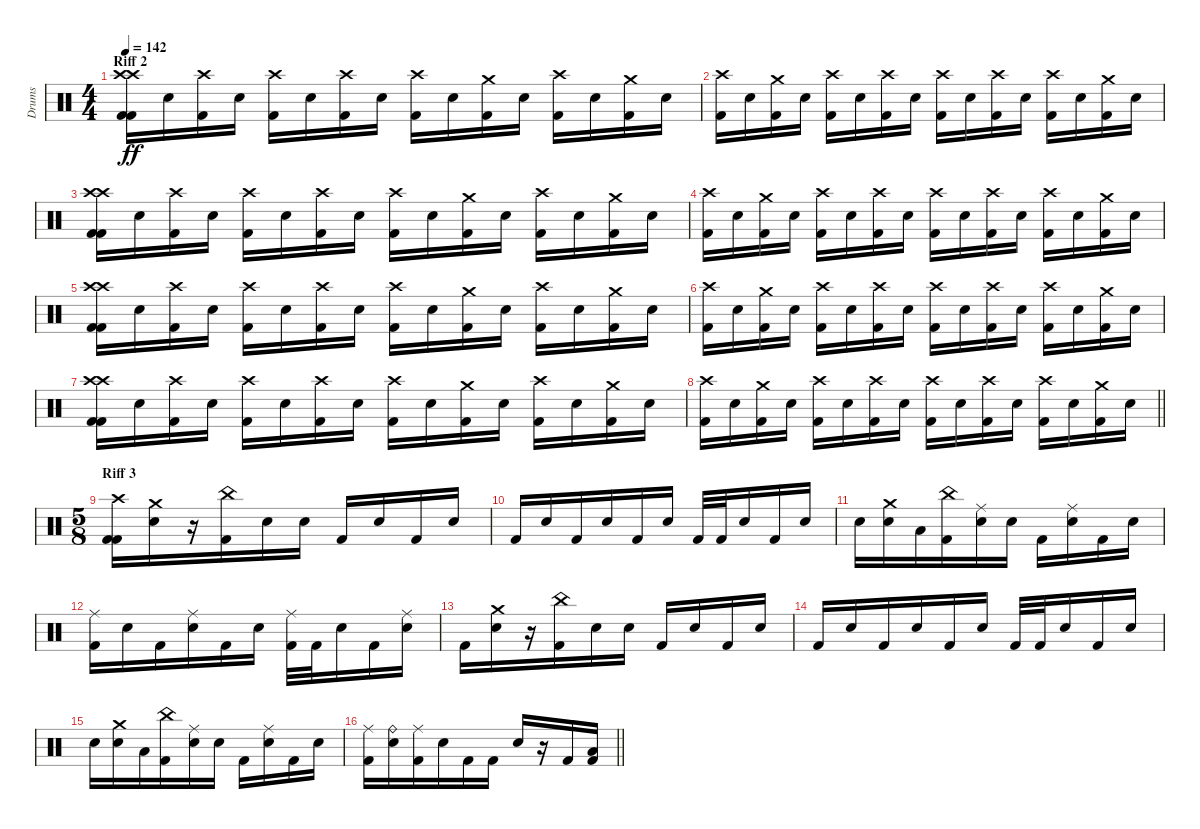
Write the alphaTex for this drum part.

\track ("Drums" "Drums") {instrument percussion}
\staff {score}
\articulation defaults
\ts (4 4)
\section ("" "Riff 2")
\tempo 142
\clef neutral
\ks c
("Crash high (hit)" "Kick (hit) 2" "Crash high (hit)" "Kick (hit) 2").16{dy ff} "Snare (hit) 2".16 ("Crash high (hit)" "Kick (hit) 2").16 "Snare (hit) 2".16 ("Crash high (hit)" "Kick (hit) 2").16 "Snare (hit) 2".16 ("Crash high (hit)" "Kick (hit) 2").16 "Snare (hit) 2".16 ("Crash high (hit)" "Kick (hit) 2").16 "Snare (hit) 2".16 ("Crash medium (hit)" "Kick (hit) 2").16 "Snare (hit) 2".16 ("Crash high (hit)" "Kick (hit) 2").16 "Snare (hit) 2".16 ("Crash medium (hit)" "Kick (hit) 2").16 "Snare (hit) 2".16 |
("Crash high (hit)" "Kick (hit) 2").16 "Snare (hit) 2".16 ("Crash medium (hit)" "Kick (hit) 2").16 "Snare (hit) 2".16 ("Crash high (hit)" "Kick (hit) 2").16 "Snare (hit) 2".16 ("Crash high (hit)" "Kick (hit) 2").16 "Snare (hit) 2".16 ("Crash high (hit)" "Kick (hit) 2").16 "Snare (hit) 2".16 ("Crash high (hit)" "Kick (hit) 2").16 "Snare (hit) 2".16 ("Crash high (hit)" "Kick (hit) 2").16 "Snare (hit) 2".16 ("Crash medium (hit)" "Kick (hit) 2").16 "Snare (hit) 2".16 |
("Crash high (hit)" "Kick (hit) 2" "Crash high (hit)" "Kick (hit) 2").16 "Snare (hit) 2".16 ("Crash high (hit)" "Kick (hit) 2").16 "Snare (hit) 2".16 ("Crash high (hit)" "Kick (hit) 2").16 "Snare (hit) 2".16 ("Crash high (hit)" "Kick (hit) 2").16 "Snare (hit) 2".16 ("Crash high (hit)" "Kick (hit) 2").16 "Snare (hit) 2".16 ("Crash medium (hit)" "Kick (hit) 2").16 "Snare (hit) 2".16 ("Crash high (hit)" "Kick (hit) 2").16 "Snare (hit) 2".16 ("Crash medium (hit)" "Kick (hit) 2").16 "Snare (hit) 2".16 |
("Crash high (hit)" "Kick (hit) 2").16 "Snare (hit) 2".16 ("Crash medium (hit)" "Kick (hit) 2").16 "Snare (hit) 2".16 ("Crash high (hit)" "Kick (hit) 2").16 "Snare (hit) 2".16 ("Crash high (hit)" "Kick (hit) 2").16 "Snare (hit) 2".16 ("Crash high (hit)" "Kick (hit) 2").16 "Snare (hit) 2".16 ("Crash high (hit)" "Kick (hit) 2").16 "Snare (hit) 2".16 ("Crash high (hit)" "Kick (hit) 2").16 "Snare (hit) 2".16 ("Crash medium (hit)" "Kick (hit) 2").16 "Snare (hit) 2".16 |
("Crash high (hit)" "Kick (hit) 2" "Crash high (hit)" "Kick (hit) 2").16 "Snare (hit) 2".16 ("Crash high (hit)" "Kick (hit) 2").16 "Snare (hit) 2".16 ("Crash high (hit)" "Kick (hit) 2").16 "Snare (hit) 2".16 ("Crash high (hit)" "Kick (hit) 2").16 "Snare (hit) 2".16 ("Crash high (hit)" "Kick (hit) 2").16 "Snare (hit) 2".16 ("Crash medium (hit)" "Kick (hit) 2").16 "Snare (hit) 2".16 ("Crash high (hit)" "Kick (hit) 2").16 "Snare (hit) 2".16 ("Crash medium (hit)" "Kick (hit) 2").16 "Snare (hit) 2".16 |
("Crash high (hit)" "Kick (hit) 2").16 "Snare (hit) 2".16 ("Crash medium (hit)" "Kick (hit) 2").16 "Snare (hit) 2".16 ("Crash high (hit)" "Kick (hit) 2").16 "Snare (hit) 2".16 ("Crash high (hit)" "Kick (hit) 2").16 "Snare (hit) 2".16 ("Crash high (hit)" "Kick (hit) 2").16 "Snare (hit) 2".16 ("Crash high (hit)" "Kick (hit) 2").16 "Snare (hit) 2".16 ("Crash high (hit)" "Kick (hit) 2").16 "Snare (hit) 2".16 ("Crash medium (hit)" "Kick (hit) 2").16 "Snare (hit) 2".16 |
("Crash high (hit)" "Kick (hit) 2" "Crash high (hit)" "Kick (hit) 2").16 "Snare (hit) 2".16 ("Crash high (hit)" "Kick (hit) 2").16 "Snare (hit) 2".16 ("Crash high (hit)" "Kick (hit) 2").16 "Snare (hit) 2".16 ("Crash high (hit)" "Kick (hit) 2").16 "Snare (hit) 2".16 ("Crash high (hit)" "Kick (hit) 2").16 "Snare (hit) 2".16 ("Crash medium (hit)" "Kick (hit) 2").16 "Snare (hit) 2".16 ("Crash high (hit)" "Kick (hit) 2").16 "Snare (hit) 2".16 ("Crash medium (hit)" "Kick (hit) 2").16 "Snare (hit) 2".16 |
\barLineRight lightlight
("Crash high (hit)" "Kick (hit) 2").16 "Snare (hit) 2".16 ("Crash medium (hit)" "Kick (hit) 2").16 "Snare (hit) 2".16 ("Crash high (hit)" "Kick (hit) 2").16 "Snare (hit) 2".16 ("Crash high (hit)" "Kick (hit) 2").16 "Snare (hit) 2".16 ("Crash high (hit)" "Kick (hit) 2").16 "Snare (hit) 2".16 ("Crash high (hit)" "Kick (hit) 2").16 "Snare (hit) 2".16 ("Crash high (hit)" "Kick (hit) 2").16 "Snare (hit) 2".16 ("Crash medium (hit)" "Kick (hit) 2").16 "Snare (hit) 2".16 |
\ts (5 8)
\section ("" "Riff 3")
("Crash high (hit)" "Kick (hit) 2" "Kick (hit) 2").16 ("Crash medium (hit)" "Snare (hit) 2").16 r.16 ("China (hit)" "Kick (hit) 2").16 "Snare (hit) 2".16 "Snare (hit) 2".16 "Kick (hit) 2".16 "Snare (hit) 2".16 "Kick (hit) 2".16 "Snare (hit) 2".16 |
"Kick (hit) 2".16 "Snare (hit) 2".16 "Kick (hit) 2".16 "Snare (hit) 2".16 "Kick (hit) 2".16 "Snare (hit) 2".16 "Kick (hit) 2".32 "Kick (hit) 2".32 "Snare (hit) 2".16 "Kick (hit) 2".16 "Snare (hit) 2".16 |
"Snare (hit) 2".16 ("Crash medium (hit)" "Snare (hit) 2").16 "Low Tom (hit)".16 ("China (hit)" "Kick (hit) 2").16 ("Snare (hit) 2" "Ride (middle)").16 "Snare (hit) 2".16 "Kick (hit) 2".16 ("Snare (hit) 2" "Ride (middle)").16 "Kick (hit) 2".16 "Snare (hit) 2".16 |
("Kick (hit) 2" "Ride (middle)").16 "Snare (hit) 2".16 "Kick (hit) 2".16 ("Snare (hit) 2" "Ride (middle)").16 "Kick (hit) 2".16 "Snare (hit) 2".16 ("Kick (hit) 2" "Ride (middle)").32 "Kick (hit) 2".32 "Snare (hit) 2".16 "Kick (hit) 2".16 ("Snare (hit) 2" "Ride (middle)").16 |
"Kick (hit) 2".16 ("Crash medium (hit)" "Snare (hit) 2").16 r.16 ("China (hit)" "Kick (hit) 2").16 "Snare (hit) 2".16 "Snare (hit) 2".16 "Kick (hit) 2".16 "Snare (hit) 2".16 "Kick (hit) 2".16 "Snare (hit) 2".16 |
"Kick (hit) 2".16 "Snare (hit) 2".16 "Kick (hit) 2".16 "Snare (hit) 2".16 "Kick (hit) 2".16 "Snare (hit) 2".16 "Kick (hit) 2".32 "Kick (hit) 2".32 "Snare (hit) 2".16 "Kick (hit) 2".16 "Snare (hit) 2".16 |
"Snare (hit) 2".16 ("Crash medium (hit)" "Snare (hit) 2").16 "Low Tom (hit)".16 ("China (hit)" "Kick (hit) 2").16 ("Snare (hit) 2" "Ride (middle)").16 "Snare (hit) 2".16 "Kick (hit) 2".16 ("Snare (hit) 2" "Ride (middle)").16 "Kick (hit) 2".16 "Snare (hit) 2".16 |
\barLineRight lightlight
("Kick (hit) 2" "Ride (middle)").16 ("Snare (hit) 2" "Ride (bell)").16 ("Kick (hit) 2" "Ride (middle)").16 "Snare (hit) 2".16 "Kick (hit) 2".16 "Kick (hit) 2".16 "Snare (hit) 2".16 r.16 "Kick (hit) 2".16 ("Kick (hit) 2" "Low Tom (hit)").16
